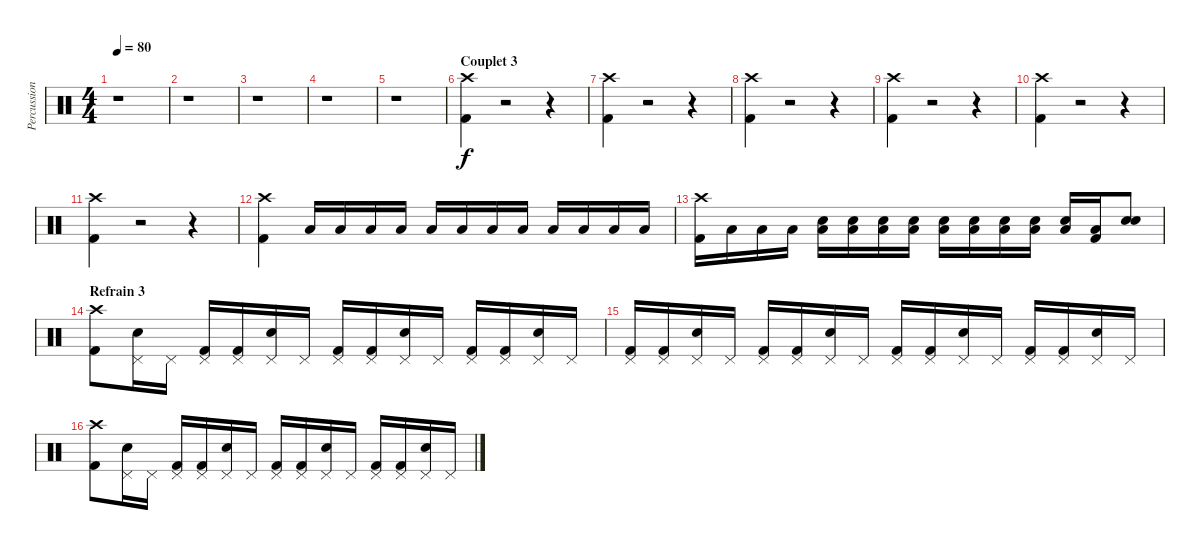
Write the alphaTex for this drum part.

\track ("Percussions" "Percussion") {instrument percussion}
\staff {score}
\articulation defaults
\ts (4 4)
\tempo 80
\clef neutral
\ks c
r.1{dy f} |
r.1 |
r.1 |
r.1 |
r.1 |
\section ("" "Couplet 3")
("Crash high (hit)" "Kick (hit) 2").4 r.2 r.4 |
("Crash high (hit)" "Kick (hit) 2").4 r.2 r.4 |
("Crash high (hit)" "Kick (hit) 2").4 r.2 r.4 |
("Crash high (hit)" "Kick (hit) 2").4 r.2 r.4 |
("Crash high (hit)" "Kick (hit) 2").4 r.2 r.4 |
("Crash high (hit)" "Kick (hit) 2").4 r.2 r.4 |
("Crash high (hit)" "Kick (hit) 2").4 "Low Floor Tom (hit)".16 "Low Floor Tom (hit)".16 "Low Floor Tom (hit)".16 "Low Floor Tom (hit)".16 "Low Floor Tom (hit)".16 "Low Floor Tom (hit)".16 "Low Floor Tom (hit)".16 "Low Floor Tom (hit)".16 "Low Floor Tom (hit)".16 "Low Floor Tom (hit)".16 "Low Floor Tom (hit)".16 "Low Floor Tom (hit)".16 |
("Crash high (hit)" "Kick (hit) 2").16 "Low Floor Tom (hit)".16 "Low Floor Tom (hit)".16 "Low Floor Tom (hit)".16 ("Electric Snare (hit)" "Low Floor Tom (hit)").16 ("Electric Snare (hit)" "Low Floor Tom (hit)").16 ("Electric Snare (hit)" "Low Floor Tom (hit)").16 ("Electric Snare (hit)" "Low Floor Tom (hit)").16 ("Electric Snare (hit)" "Low Floor Tom (hit)").16 ("Electric Snare (hit)" "Low Floor Tom (hit)").16 ("Electric Snare (hit)" "Low Floor Tom (hit)").16 ("Electric Snare (hit)" "Low Floor Tom (hit)").16 ("Electric Snare (hit)" "Low Floor Tom (hit)").16 ("Low Floor Tom (hit)" "Kick (hit) 2").16 ("Electric Snare (hit)" "Electric Snare (hit)").8 |
\section ("" "Refrain 3")
("Crash high (hit)" "Kick (hit) 2").8 ("Pedal Hi-Hat (hit)" "Electric Snare (hit)").16 "Pedal Hi-Hat (hit)".16 ("Pedal Hi-Hat (hit)" "Kick (hit) 2").16 ("Pedal Hi-Hat (hit)" "Kick (hit) 2").16 ("Pedal Hi-Hat (hit)" "Electric Snare (hit)").16 "Pedal Hi-Hat (hit)".16 ("Pedal Hi-Hat (hit)" "Kick (hit) 2").16 ("Pedal Hi-Hat (hit)" "Kick (hit) 2").16 ("Pedal Hi-Hat (hit)" "Electric Snare (hit)").16 "Pedal Hi-Hat (hit)".16 ("Pedal Hi-Hat (hit)" "Kick (hit) 2").16 ("Pedal Hi-Hat (hit)" "Kick (hit) 2").16 ("Pedal Hi-Hat (hit)" "Electric Snare (hit)").16 "Pedal Hi-Hat (hit)".16 |
("Pedal Hi-Hat (hit)" "Kick (hit) 2").16 ("Pedal Hi-Hat (hit)" "Kick (hit) 2").16 ("Pedal Hi-Hat (hit)" "Electric Snare (hit)").16 "Pedal Hi-Hat (hit)".16 ("Pedal Hi-Hat (hit)" "Kick (hit) 2").16 ("Pedal Hi-Hat (hit)" "Kick (hit) 2").16 ("Pedal Hi-Hat (hit)" "Electric Snare (hit)").16 "Pedal Hi-Hat (hit)".16 ("Pedal Hi-Hat (hit)" "Kick (hit) 2").16 ("Pedal Hi-Hat (hit)" "Kick (hit) 2").16 ("Pedal Hi-Hat (hit)" "Electric Snare (hit)").16 "Pedal Hi-Hat (hit)".16 ("Pedal Hi-Hat (hit)" "Kick (hit) 2").16 ("Pedal Hi-Hat (hit)" "Kick (hit) 2").16 ("Pedal Hi-Hat (hit)" "Electric Snare (hit)").16 "Pedal Hi-Hat (hit)".16 |
("Crash high (hit)" "Kick (hit) 2").8 ("Pedal Hi-Hat (hit)" "Electric Snare (hit)").16 "Pedal Hi-Hat (hit)".16 ("Pedal Hi-Hat (hit)" "Kick (hit) 2").16 ("Pedal Hi-Hat (hit)" "Kick (hit) 2").16 ("Pedal Hi-Hat (hit)" "Electric Snare (hit)").16 "Pedal Hi-Hat (hit)".16 ("Pedal Hi-Hat (hit)" "Kick (hit) 2").16 ("Pedal Hi-Hat (hit)" "Kick (hit) 2").16 ("Pedal Hi-Hat (hit)" "Electric Snare (hit)").16 "Pedal Hi-Hat (hit)".16 ("Pedal Hi-Hat (hit)" "Kick (hit) 2").16 ("Pedal Hi-Hat (hit)" "Kick (hit) 2").16 ("Pedal Hi-Hat (hit)" "Electric Snare (hit)").16 "Pedal Hi-Hat (hit)".16
